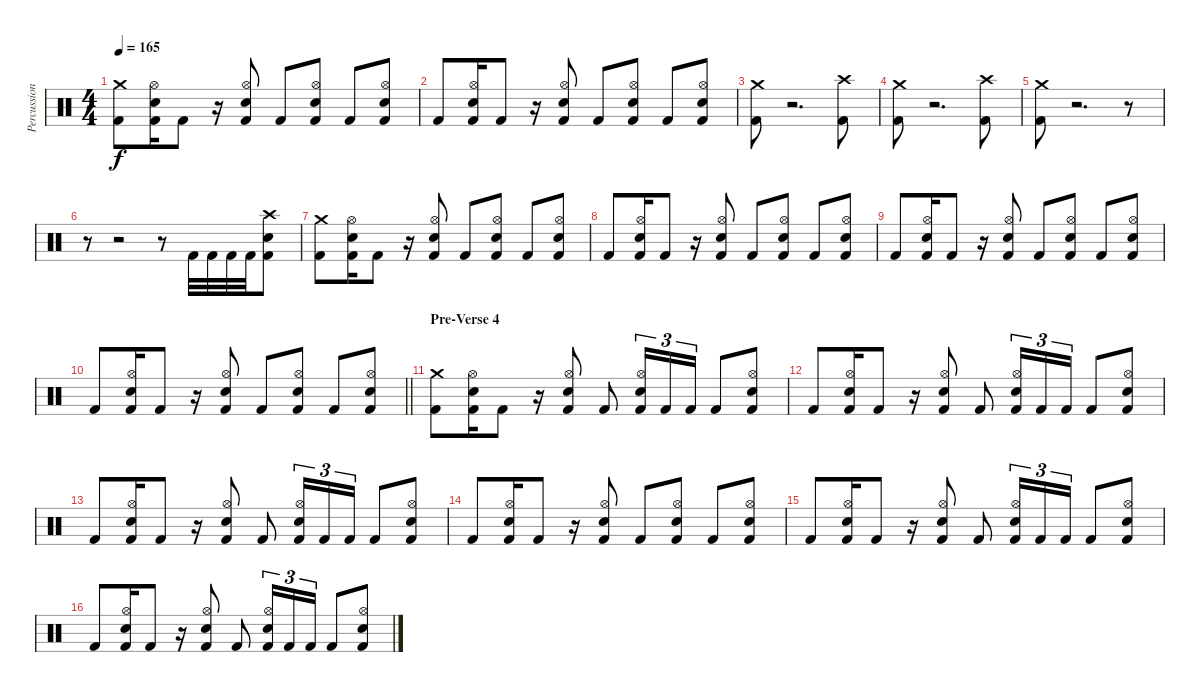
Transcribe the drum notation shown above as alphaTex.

\track ("Percussion" "Percussion") {instrument percussion}
\staff {score}
\articulation defaults
\ts (4 4)
\tempo 165
\clef neutral
\ks c
("Crash medium (hit)" "Kick (hit) 2").8{dy f} ("Hi-Hat (open)" "Kick (hit) 2" "Snare (hit) 2").16 "Kick (hit) 2".8 r.16 ("Hi-Hat (open)" "Kick (hit) 2" "Snare (hit) 2").8 "Kick (hit) 2".8 ("Hi-Hat (open)" "Kick (hit) 2" "Snare (hit) 2").8 "Kick (hit) 2".8 ("Hi-Hat (open)" "Kick (hit) 2" "Snare (hit) 2").8 |
"Kick (hit) 2".8 ("Hi-Hat (open)" "Kick (hit) 2" "Snare (hit) 2").16 "Kick (hit) 2".8 r.16 ("Hi-Hat (open)" "Kick (hit) 2" "Snare (hit) 2").8 "Kick (hit) 2".8 ("Hi-Hat (open)" "Kick (hit) 2" "Snare (hit) 2").8 "Kick (hit) 2".8 ("Hi-Hat (open)" "Kick (hit) 2" "Snare (hit) 2").8 |
("Crash medium (hit)" "Kick (hit) 2").8 r.2{d} ("Crash high (hit)" "Kick (hit) 2").8 |
("Crash medium (hit)" "Kick (hit) 2").8 r.2{d} ("Crash high (hit)" "Kick (hit) 2").8 |
("Crash medium (hit)" "Kick (hit) 2").8 r.2{d} r.8 |
r.8 r.2 r.8 "Kick (hit) 2".32 "Kick (hit) 2".32 "Kick (hit) 2".32 "Kick (hit) 2".32 ("Crash high (hit)" "Kick (hit) 2" "Snare (hit) 2").8 |
("Crash medium (hit)" "Kick (hit) 2").8 ("Hi-Hat (open)" "Kick (hit) 2" "Snare (hit) 2").16 "Kick (hit) 2".8 r.16 ("Hi-Hat (open)" "Kick (hit) 2" "Snare (hit) 2").8 "Kick (hit) 2".8 ("Hi-Hat (open)" "Kick (hit) 2" "Snare (hit) 2").8 "Kick (hit) 2".8 ("Hi-Hat (open)" "Kick (hit) 2" "Snare (hit) 2").8 |
"Kick (hit) 2".8 ("Hi-Hat (open)" "Kick (hit) 2" "Snare (hit) 2").16 "Kick (hit) 2".8 r.16 ("Hi-Hat (open)" "Kick (hit) 2" "Snare (hit) 2").8 "Kick (hit) 2".8 ("Hi-Hat (open)" "Kick (hit) 2" "Snare (hit) 2").8 "Kick (hit) 2".8 ("Hi-Hat (open)" "Kick (hit) 2" "Snare (hit) 2").8 |
"Kick (hit) 2".8 ("Hi-Hat (open)" "Kick (hit) 2" "Snare (hit) 2").16 "Kick (hit) 2".8 r.16 ("Hi-Hat (open)" "Kick (hit) 2" "Snare (hit) 2").8 "Kick (hit) 2".8 ("Hi-Hat (open)" "Kick (hit) 2" "Snare (hit) 2").8 "Kick (hit) 2".8 ("Hi-Hat (open)" "Kick (hit) 2" "Snare (hit) 2").8 |
\barLineRight lightlight "Kick (hit) 2".8
("Hi-Hat (open)" "Kick (hit) 2" "Snare (hit) 2").16 "Kick (hit) 2".8 r.16 ("Hi-Hat (open)" "Kick (hit) 2" "Snare (hit) 2").8 "Kick (hit) 2".8 ("Hi-Hat (open)" "Kick (hit) 2" "Snare (hit) 2").8 "Kick (hit) 2".8 ("Hi-Hat (open)" "Kick (hit) 2" "Snare (hit) 2").8 |
\section ("" "Pre-Verse 4")
("Crash medium (hit)" "Kick (hit) 2").8 ("Hi-Hat (open)" "Kick (hit) 2" "Snare (hit) 2").16 "Kick (hit) 2".8 r.16 ("Hi-Hat (open)" "Kick (hit) 2" "Snare (hit) 2").8 "Kick (hit) 2".8 ("Hi-Hat (open)" "Kick (hit) 2" "Snare (hit) 2").16{tu (3 2)} "Kick (hit) 2".16{tu (3 2)} "Kick (hit) 2".16{tu (3 2)} "Kick (hit) 2".8 ("Hi-Hat (open)" "Kick (hit) 2" "Snare (hit) 2").8 |
"Kick (hit) 2".8 ("Hi-Hat (open)" "Kick (hit) 2" "Snare (hit) 2").16 "Kick (hit) 2".8 r.16 ("Hi-Hat (open)" "Kick (hit) 2" "Snare (hit) 2").8 "Kick (hit) 2".8 ("Hi-Hat (open)" "Kick (hit) 2" "Snare (hit) 2").16{tu (3 2)} "Kick (hit) 2".16{tu (3 2)} "Kick (hit) 2".16{tu (3 2)} "Kick (hit) 2".8 ("Hi-Hat (open)" "Kick (hit) 2" "Snare (hit) 2").8 |
"Kick (hit) 2".8 ("Hi-Hat (open)" "Kick (hit) 2" "Snare (hit) 2").16 "Kick (hit) 2".8 r.16 ("Hi-Hat (open)" "Kick (hit) 2" "Snare (hit) 2").8 "Kick (hit) 2".8 ("Hi-Hat (open)" "Kick (hit) 2" "Snare (hit) 2").16{tu (3 2)} "Kick (hit) 2".16{tu (3 2)} "Kick (hit) 2".16{tu (3 2)} "Kick (hit) 2".8 ("Hi-Hat (open)" "Kick (hit) 2" "Snare (hit) 2").8 |
"Kick (hit) 2".8 ("Hi-Hat (open)" "Kick (hit) 2" "Snare (hit) 2").16 "Kick (hit) 2".8 r.16 ("Hi-Hat (open)" "Kick (hit) 2" "Snare (hit) 2").8 "Kick (hit) 2".8 ("Hi-Hat (open)" "Kick (hit) 2" "Snare (hit) 2").8 "Kick (hit) 2".8 ("Hi-Hat (open)" "Kick (hit) 2" "Snare (hit) 2").8 |
"Kick (hit) 2".8 ("Hi-Hat (open)" "Kick (hit) 2" "Snare (hit) 2").16 "Kick (hit) 2".8 r.16 ("Hi-Hat (open)" "Kick (hit) 2" "Snare (hit) 2").8 "Kick (hit) 2".8 ("Hi-Hat (open)" "Kick (hit) 2" "Snare (hit) 2").16{tu (3 2)} "Kick (hit) 2".16{tu (3 2)} "Kick (hit) 2".16{tu (3 2)} "Kick (hit) 2".8 ("Hi-Hat (open)" "Kick (hit) 2" "Snare (hit) 2").8 |
"Kick (hit) 2".8 ("Hi-Hat (open)" "Kick (hit) 2" "Snare (hit) 2").16 "Kick (hit) 2".8 r.16 ("Hi-Hat (open)" "Kick (hit) 2" "Snare (hit) 2").8 "Kick (hit) 2".8 ("Hi-Hat (open)" "Kick (hit) 2" "Snare (hit) 2").16{tu (3 2)} "Kick (hit) 2".16{tu (3 2)} "Kick (hit) 2".16{tu (3 2)} "Kick (hit) 2".8 ("Hi-Hat (open)" "Kick (hit) 2" "Snare (hit) 2").8
